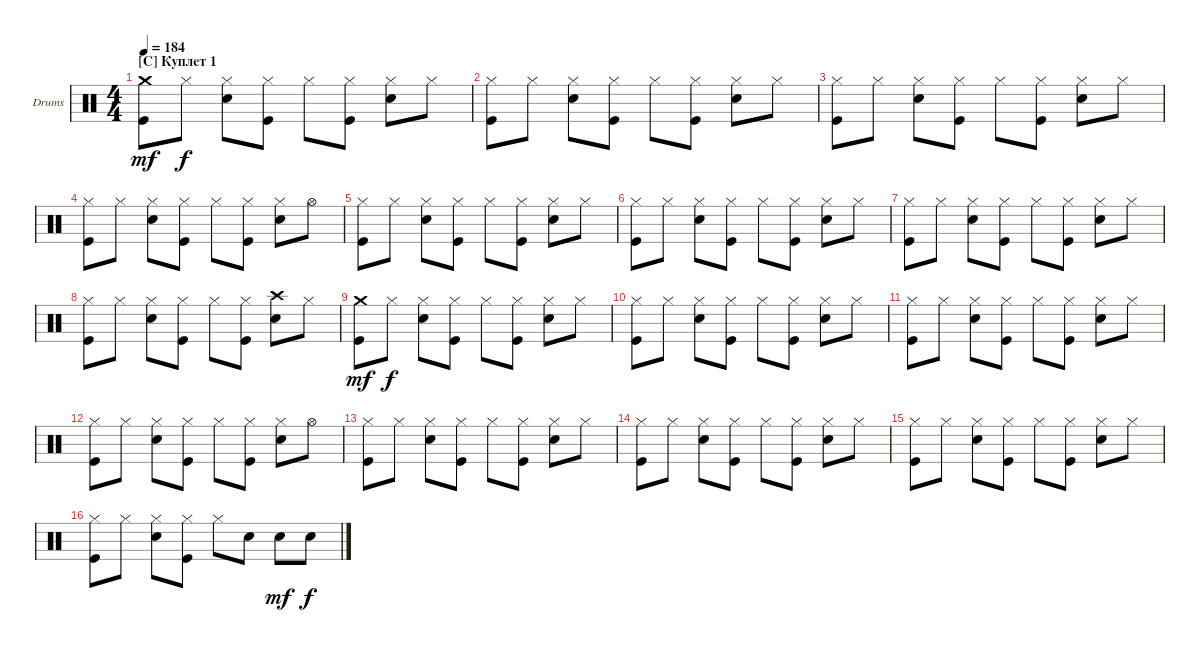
\bracketExtendMode groupsimilarinstruments
\firstSystemTrackNameOrientation horizontal
\otherSystemsTrackNameOrientation horizontal
\track ("Drumkit" "Drums") {instrument percussion}
\staff {score}
\articulation defaults
\ts (4 4)
\section ("C" "Куплет 1")
\tempo 184
\clef neutral
\ks c
("Crash medium (hit)" "Kick (hit)").8{dy mf} "Hi-Hat (closed)".8{dy f} ("Hi-Hat (closed)" "Snare (hit) 2").8 ("Hi-Hat (closed)" "Kick (hit)").8 "Hi-Hat (closed)".8 ("Hi-Hat (closed)" "Kick (hit)").8 ("Hi-Hat (closed)" "Snare (hit) 2").8 "Hi-Hat (closed)".8 |
("Hi-Hat (closed)" "Kick (hit)").8 "Hi-Hat (closed)".8 ("Hi-Hat (closed)" "Snare (hit) 2").8 ("Hi-Hat (closed)" "Kick (hit)").8 "Hi-Hat (closed)".8 ("Hi-Hat (closed)" "Kick (hit)").8 ("Hi-Hat (closed)" "Snare (hit) 2").8 "Hi-Hat (closed)".8 |
("Hi-Hat (closed)" "Kick (hit)").8 "Hi-Hat (closed)".8 ("Hi-Hat (closed)" "Snare (hit) 2").8 ("Hi-Hat (closed)" "Kick (hit)").8 "Hi-Hat (closed)".8 ("Hi-Hat (closed)" "Kick (hit)").8 ("Hi-Hat (closed)" "Snare (hit) 2").8 "Hi-Hat (closed)".8 |
("Hi-Hat (closed)" "Kick (hit)").8 "Hi-Hat (closed)".8 ("Hi-Hat (closed)" "Snare (hit) 2").8 ("Hi-Hat (closed)" "Kick (hit)").8 "Hi-Hat (closed)".8 ("Hi-Hat (closed)" "Kick (hit)").8 ("Hi-Hat (closed)" "Snare (hit) 2").8 "Hi-Hat (open)".8 |
("Hi-Hat (closed)" "Kick (hit)").8 "Hi-Hat (closed)".8 ("Hi-Hat (closed)" "Snare (hit) 2").8 ("Hi-Hat (closed)" "Kick (hit)").8 "Hi-Hat (closed)".8 ("Hi-Hat (closed)" "Kick (hit)").8 ("Hi-Hat (closed)" "Snare (hit) 2").8 "Hi-Hat (closed)".8 |
("Hi-Hat (closed)" "Kick (hit)").8 "Hi-Hat (closed)".8 ("Hi-Hat (closed)" "Snare (hit) 2").8 ("Hi-Hat (closed)" "Kick (hit)").8 "Hi-Hat (closed)".8 ("Hi-Hat (closed)" "Kick (hit)").8 ("Hi-Hat (closed)" "Snare (hit) 2").8 "Hi-Hat (closed)".8 |
("Hi-Hat (closed)" "Kick (hit)").8 "Hi-Hat (closed)".8 ("Hi-Hat (closed)" "Snare (hit) 2").8 ("Hi-Hat (closed)" "Kick (hit)").8 "Hi-Hat (closed)".8 ("Hi-Hat (closed)" "Kick (hit)").8 ("Hi-Hat (closed)" "Snare (hit) 2").8 "Hi-Hat (closed)".8 |
("Hi-Hat (closed)" "Kick (hit)").8 "Hi-Hat (closed)".8 ("Hi-Hat (closed)" "Snare (hit) 2").8 ("Hi-Hat (closed)" "Kick (hit)").8 "Hi-Hat (closed)".8 ("Hi-Hat (closed)" "Kick (hit)").8 ("Crash high (hit)" "Snare (hit) 2").8 "Hi-Hat (closed)".8 |
("Crash medium (hit)" "Kick (hit)").8{dy mf} "Hi-Hat (closed)".8{dy f} ("Hi-Hat (closed)" "Snare (hit) 2").8 ("Hi-Hat (closed)" "Kick (hit)").8 "Hi-Hat (closed)".8 ("Hi-Hat (closed)" "Kick (hit)").8 ("Hi-Hat (closed)" "Snare (hit) 2").8 "Hi-Hat (closed)".8 |
("Hi-Hat (closed)" "Kick (hit)").8 "Hi-Hat (closed)".8 ("Hi-Hat (closed)" "Snare (hit) 2").8 ("Hi-Hat (closed)" "Kick (hit)").8 "Hi-Hat (closed)".8 ("Hi-Hat (closed)" "Kick (hit)").8 ("Hi-Hat (closed)" "Snare (hit) 2").8 "Hi-Hat (closed)".8 |
("Hi-Hat (closed)" "Kick (hit)").8 "Hi-Hat (closed)".8 ("Hi-Hat (closed)" "Snare (hit) 2").8 ("Hi-Hat (closed)" "Kick (hit)").8 "Hi-Hat (closed)".8 ("Hi-Hat (closed)" "Kick (hit)").8 ("Hi-Hat (closed)" "Snare (hit) 2").8 "Hi-Hat (closed)".8 |
("Hi-Hat (closed)" "Kick (hit)").8 "Hi-Hat (closed)".8 ("Hi-Hat (closed)" "Snare (hit) 2").8 ("Hi-Hat (closed)" "Kick (hit)").8 "Hi-Hat (closed)".8 ("Hi-Hat (closed)" "Kick (hit)").8 ("Hi-Hat (closed)" "Snare (hit) 2").8 "Hi-Hat (open)".8 |
("Hi-Hat (closed)" "Kick (hit)").8 "Hi-Hat (closed)".8 ("Hi-Hat (closed)" "Snare (hit) 2").8 ("Hi-Hat (closed)" "Kick (hit)").8 "Hi-Hat (closed)".8 ("Hi-Hat (closed)" "Kick (hit)").8 ("Hi-Hat (closed)" "Snare (hit) 2").8 "Hi-Hat (closed)".8 |
("Hi-Hat (closed)" "Kick (hit)").8 "Hi-Hat (closed)".8 ("Hi-Hat (closed)" "Snare (hit) 2").8 ("Hi-Hat (closed)" "Kick (hit)").8 "Hi-Hat (closed)".8 ("Hi-Hat (closed)" "Kick (hit)").8 ("Hi-Hat (closed)" "Snare (hit) 2").8 "Hi-Hat (closed)".8 |
("Hi-Hat (closed)" "Kick (hit)").8 "Hi-Hat (closed)".8 ("Hi-Hat (closed)" "Snare (hit) 2").8 ("Hi-Hat (closed)" "Kick (hit)").8 "Hi-Hat (closed)".8 ("Hi-Hat (closed)" "Kick (hit)").8 ("Hi-Hat (closed)" "Snare (hit) 2").8 "Hi-Hat (closed)".8 |
("Hi-Hat (closed)" "Kick (hit)").8 "Hi-Hat (closed)".8 ("Hi-Hat (closed)" "Snare (hit) 2").8 ("Hi-Hat (closed)" "Kick (hit)").8 "Hi-Hat (closed)".8 "Snare (hit) 2".8 "Snare (hit) 2".8{dy mf} "Snare (hit) 2".8{dy f}
